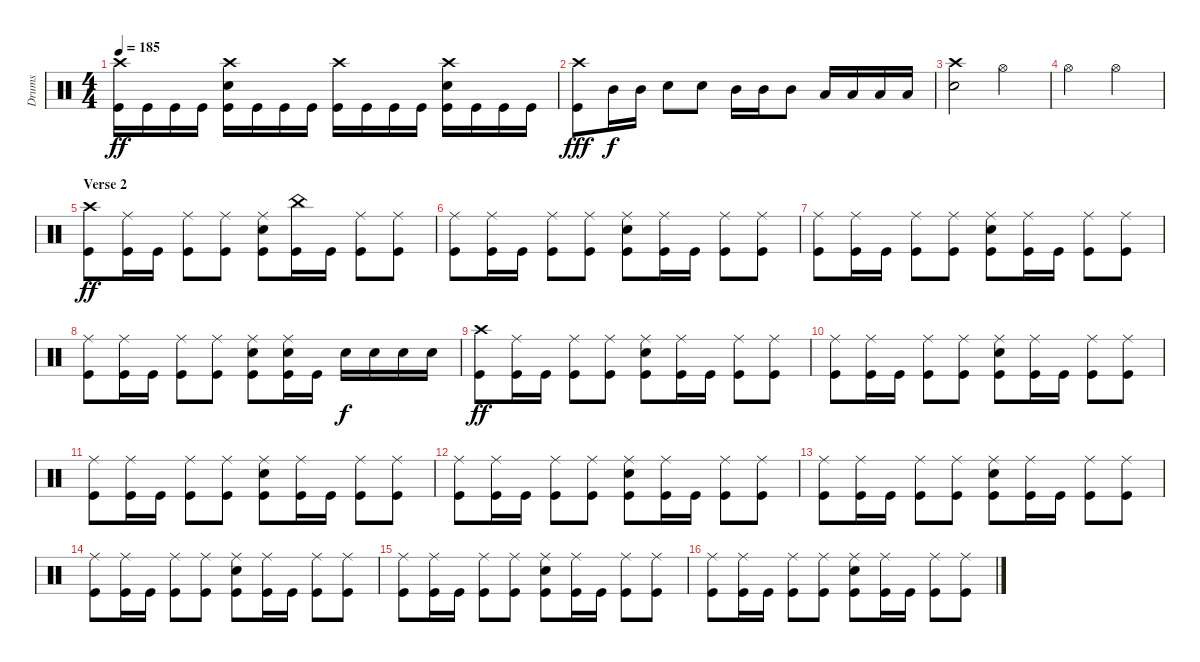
\track ("Drums" "Drums") {instrument percussion}
\staff {score}
\articulation defaults
\ts (4 4)
\tempo 185
\clef neutral
\ks c
("Crash high (hit)" "Kick (hit)").16{dy ff} "Kick (hit)".16 "Kick (hit)".16 "Kick (hit)".16 ("Crash high (hit)" "Snare (hit) 2" "Kick (hit)").16 "Kick (hit)".16 "Kick (hit)".16 "Kick (hit)".16 ("Crash high (hit)" "Kick (hit)").16 "Kick (hit)".16 "Kick (hit)".16 "Kick (hit)".16 ("Crash high (hit)" "Snare (hit) 2" "Kick (hit)").16 "Kick (hit)".16 "Kick (hit)".16 "Kick (hit)".16 |
("Crash high (hit)" "Kick (hit)").8{dy fff} "Mid Tom (hit)".16{dy f} "Mid Tom (hit)".16 "Snare (hit) 2".8 "Snare (hit) 2".8 "Mid Tom (hit)".16 "Mid Tom (hit)".16 "Mid Tom (hit)".8 "Low Tom (hit)".16 "Low Tom (hit)".16 "Low Tom (hit)".16 "Low Tom (hit)".16 |
("Crash high (hit)" "Snare (hit) 2").2 "Hi-Hat (open)".2 |
"Hi-Hat (open)".2 "Hi-Hat (open)".2 |
\section ("" "Verse 2")
("Crash high (hit)" "Kick (hit)").8{dy ff} ("Ride (middle)" "Kick (hit)").16 "Kick (hit)".16 ("Ride (middle)" "Kick (hit)").8 ("Ride (middle)" "Kick (hit)").8 ("Ride (middle)" "Snare (hit) 2" "Kick (hit)").8 ("China (hit)" "Kick (hit)").16 "Kick (hit)".16 ("Ride (middle)" "Kick (hit)").8 ("Ride (middle)" "Kick (hit)").8 |
("Ride (middle)" "Kick (hit)").8 ("Ride (middle)" "Kick (hit)").16 "Kick (hit)".16 ("Ride (middle)" "Kick (hit)").8 ("Ride (middle)" "Kick (hit)").8 ("Ride (middle)" "Snare (hit) 2" "Kick (hit)").8 ("Ride (middle)" "Kick (hit)").16 "Kick (hit)".16 ("Ride (middle)" "Kick (hit)").8 ("Ride (middle)" "Kick (hit)").8 |
("Ride (middle)" "Kick (hit)").8 ("Ride (middle)" "Kick (hit)").16 "Kick (hit)".16 ("Ride (middle)" "Kick (hit)").8 ("Ride (middle)" "Kick (hit)").8 ("Ride (middle)" "Snare (hit) 2" "Kick (hit)").8 ("Ride (middle)" "Kick (hit)").16 "Kick (hit)".16 ("Ride (middle)" "Kick (hit)").8 ("Ride (middle)" "Kick (hit)").8 |
("Ride (middle)" "Kick (hit)").8 ("Ride (middle)" "Kick (hit)").16 "Kick (hit)".16 ("Ride (middle)" "Kick (hit)").8 ("Ride (middle)" "Kick (hit)").8 ("Ride (middle)" "Snare (hit) 2" "Kick (hit)").8 ("Ride (middle)" "Snare (hit) 2" "Kick (hit)").16 "Kick (hit)".16 "Snare (hit) 2".16{dy f} "Snare (hit) 2".16 "Snare (hit) 2".16 "Snare (hit) 2".16 |
("Crash high (hit)" "Kick (hit)").8{dy ff} ("Ride (middle)" "Kick (hit)").16 "Kick (hit)".16 ("Ride (middle)" "Kick (hit)").8 ("Ride (middle)" "Kick (hit)").8 ("Ride (middle)" "Snare (hit) 2" "Kick (hit)").8 ("Ride (middle)" "Kick (hit)").16 "Kick (hit)".16 ("Ride (middle)" "Kick (hit)").8 ("Ride (middle)" "Kick (hit)").8 |
("Ride (middle)" "Kick (hit)").8 ("Ride (middle)" "Kick (hit)").16 "Kick (hit)".16 ("Ride (middle)" "Kick (hit)").8 ("Ride (middle)" "Kick (hit)").8 ("Ride (middle)" "Snare (hit) 2" "Kick (hit)").8 ("Ride (middle)" "Kick (hit)").16 "Kick (hit)".16 ("Ride (middle)" "Kick (hit)").8 ("Ride (middle)" "Kick (hit)").8 |
("Ride (middle)" "Kick (hit)").8 ("Ride (middle)" "Kick (hit)").16 "Kick (hit)".16 ("Ride (middle)" "Kick (hit)").8 ("Ride (middle)" "Kick (hit)").8 ("Ride (middle)" "Snare (hit) 2" "Kick (hit)").8 ("Ride (middle)" "Kick (hit)").16 "Kick (hit)".16 ("Ride (middle)" "Kick (hit)").8 ("Ride (middle)" "Kick (hit)").8 |
("Ride (middle)" "Kick (hit)").8 ("Ride (middle)" "Kick (hit)").16 "Kick (hit)".16 ("Ride (middle)" "Kick (hit)").8 ("Ride (middle)" "Kick (hit)").8 ("Ride (middle)" "Snare (hit) 2" "Kick (hit)").8 ("Ride (middle)" "Kick (hit)").16 "Kick (hit)".16 ("Ride (middle)" "Kick (hit)").8 ("Ride (middle)" "Kick (hit)").8 |
("Ride (middle)" "Kick (hit)").8 ("Ride (middle)" "Kick (hit)").16 "Kick (hit)".16 ("Ride (middle)" "Kick (hit)").8 ("Ride (middle)" "Kick (hit)").8 ("Ride (middle)" "Snare (hit) 2" "Kick (hit)").8 ("Ride (middle)" "Kick (hit)").16 "Kick (hit)".16 ("Ride (middle)" "Kick (hit)").8 ("Ride (middle)" "Kick (hit)").8 |
("Ride (middle)" "Kick (hit)").8 ("Ride (middle)" "Kick (hit)").16 "Kick (hit)".16 ("Ride (middle)" "Kick (hit)").8 ("Ride (middle)" "Kick (hit)").8 ("Ride (middle)" "Snare (hit) 2" "Kick (hit)").8 ("Ride (middle)" "Kick (hit)").16 "Kick (hit)".16 ("Ride (middle)" "Kick (hit)").8 ("Ride (middle)" "Kick (hit)").8 |
("Ride (middle)" "Kick (hit)").8 ("Ride (middle)" "Kick (hit)").16 "Kick (hit)".16 ("Ride (middle)" "Kick (hit)").8 ("Ride (middle)" "Kick (hit)").8 ("Ride (middle)" "Snare (hit) 2" "Kick (hit)").8 ("Ride (middle)" "Kick (hit)").16 "Kick (hit)".16 ("Ride (middle)" "Kick (hit)").8 ("Ride (middle)" "Kick (hit)").8 |
("Ride (middle)" "Kick (hit)").8 ("Ride (middle)" "Kick (hit)").16 "Kick (hit)".16 ("Ride (middle)" "Kick (hit)").8 ("Ride (middle)" "Kick (hit)").8 ("Ride (middle)" "Snare (hit) 2" "Kick (hit)").8 ("Ride (middle)" "Kick (hit)").16 "Kick (hit)".16 ("Ride (middle)" "Kick (hit)").8 ("Ride (middle)" "Kick (hit)").8
